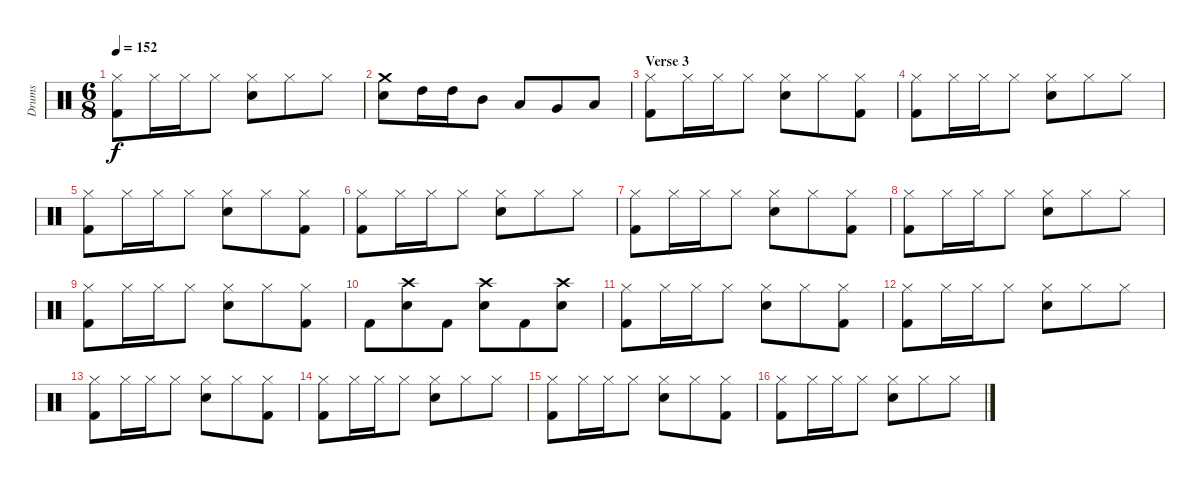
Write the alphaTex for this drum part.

\track ("Drums" "Drums") {instrument percussion}
\staff {score}
\articulation defaults
\ts (6 8)
\tempo 152
\clef neutral
\ks c
("Hi-Hat (closed)" "Kick (hit) 2").8{dy f} "Hi-Hat (closed)".16 "Hi-Hat (closed)".16 "Hi-Hat (closed)".8 ("Electric Snare (hit)" "Hi-Hat (closed)").8 "Hi-Hat (closed)".8 "Hi-Hat (closed)".8 |
("Crash medium (hit)" "Electric Snare (hit)").8 "High Tom (hit)".16 "High Tom (hit)".16 "Mid Tom (hit)".8 "Low Tom (hit)".8 "Very Low Tom (hit)".8 "Low Floor Tom (hit)".8 |
\section ("" "Verse 3")
("Hi-Hat (closed)" "Kick (hit) 2").8 "Hi-Hat (closed)".16 "Hi-Hat (closed)".16 "Hi-Hat (closed)".8 ("Electric Snare (hit)" "Hi-Hat (closed)").8 "Hi-Hat (closed)".8 ("Hi-Hat (closed)" "Kick (hit) 2").8 |
("Hi-Hat (closed)" "Kick (hit) 2").8 "Hi-Hat (closed)".16 "Hi-Hat (closed)".16 "Hi-Hat (closed)".8 ("Electric Snare (hit)" "Hi-Hat (closed)").8 "Hi-Hat (closed)".8 "Hi-Hat (closed)".8 |
("Hi-Hat (closed)" "Kick (hit) 2").8 "Hi-Hat (closed)".16 "Hi-Hat (closed)".16 "Hi-Hat (closed)".8 ("Electric Snare (hit)" "Hi-Hat (closed)").8 "Hi-Hat (closed)".8 ("Hi-Hat (closed)" "Kick (hit) 2").8 |
("Hi-Hat (closed)" "Kick (hit) 2").8 "Hi-Hat (closed)".16 "Hi-Hat (closed)".16 "Hi-Hat (closed)".8 ("Electric Snare (hit)" "Hi-Hat (closed)").8 "Hi-Hat (closed)".8 "Hi-Hat (closed)".8 |
("Hi-Hat (closed)" "Kick (hit) 2").8 "Hi-Hat (closed)".16 "Hi-Hat (closed)".16 "Hi-Hat (closed)".8 ("Electric Snare (hit)" "Hi-Hat (closed)").8 "Hi-Hat (closed)".8 ("Hi-Hat (closed)" "Kick (hit) 2").8 |
("Hi-Hat (closed)" "Kick (hit) 2").8 "Hi-Hat (closed)".16 "Hi-Hat (closed)".16 "Hi-Hat (closed)".8 ("Electric Snare (hit)" "Hi-Hat (closed)").8 "Hi-Hat (closed)".8 "Hi-Hat (closed)".8 |
("Hi-Hat (closed)" "Kick (hit) 2").8 "Hi-Hat (closed)".16 "Hi-Hat (closed)".16 "Hi-Hat (closed)".8 ("Electric Snare (hit)" "Hi-Hat (closed)").8 "Hi-Hat (closed)".8 ("Hi-Hat (closed)" "Kick (hit) 2").8 |
"Kick (hit) 2".8 ("Crash high (hit)" "Electric Snare (hit)").8 "Kick (hit) 2".8 ("Crash high (hit)" "Electric Snare (hit)").8 "Kick (hit) 2".8 ("Crash high (hit)" "Electric Snare (hit)").8 |
("Hi-Hat (closed)" "Kick (hit) 2").8 "Hi-Hat (closed)".16 "Hi-Hat (closed)".16 "Hi-Hat (closed)".8 ("Electric Snare (hit)" "Hi-Hat (closed)").8 "Hi-Hat (closed)".8 ("Hi-Hat (closed)" "Kick (hit) 2").8 |
("Hi-Hat (closed)" "Kick (hit) 2").8 "Hi-Hat (closed)".16 "Hi-Hat (closed)".16 "Hi-Hat (closed)".8 ("Electric Snare (hit)" "Hi-Hat (closed)").8 "Hi-Hat (closed)".8 "Hi-Hat (closed)".8 |
("Hi-Hat (closed)" "Kick (hit) 2").8 "Hi-Hat (closed)".16 "Hi-Hat (closed)".16 "Hi-Hat (closed)".8 ("Electric Snare (hit)" "Hi-Hat (closed)").8 "Hi-Hat (closed)".8 ("Hi-Hat (closed)" "Kick (hit) 2").8 |
("Hi-Hat (closed)" "Kick (hit) 2").8 "Hi-Hat (closed)".16 "Hi-Hat (closed)".16 "Hi-Hat (closed)".8 ("Electric Snare (hit)" "Hi-Hat (closed)").8 "Hi-Hat (closed)".8 "Hi-Hat (closed)".8 |
("Hi-Hat (closed)" "Kick (hit) 2").8 "Hi-Hat (closed)".16 "Hi-Hat (closed)".16 "Hi-Hat (closed)".8 ("Electric Snare (hit)" "Hi-Hat (closed)").8 "Hi-Hat (closed)".8 ("Hi-Hat (closed)" "Kick (hit) 2").8 |
("Hi-Hat (closed)" "Kick (hit) 2").8 "Hi-Hat (closed)".16 "Hi-Hat (closed)".16 "Hi-Hat (closed)".8 ("Electric Snare (hit)" "Hi-Hat (closed)").8 "Hi-Hat (closed)".8 "Hi-Hat (closed)".8
